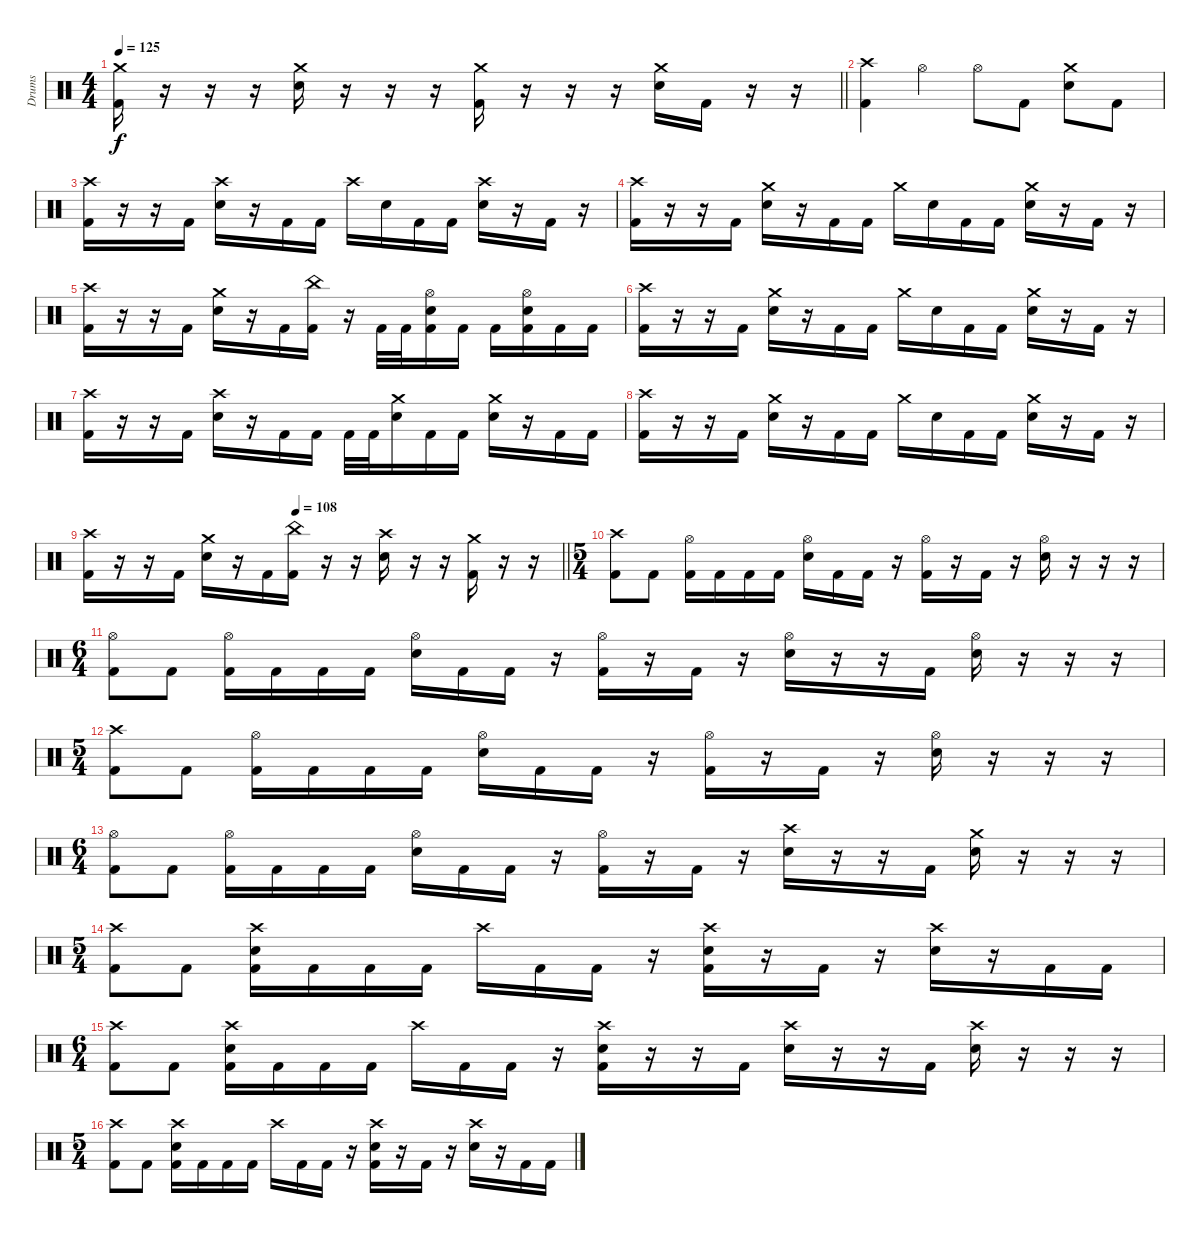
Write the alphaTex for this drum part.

\track ("Drums" "Drums") {instrument percussion}
\staff
\articulation defaults
\ts (4 4)
\tempo 125
\clef neutral
\barLineRight lightlight
\ks c
("Crash medium (hit)" "Kick (hit) 2").16{dy f} r.16 r.16 r.16 ("Crash medium (hit)" "Electric Snare (hit)").16 r.16 r.16 r.16 ("Crash medium (hit)" "Kick (hit) 2").16 r.16 r.16 r.16 ("Crash medium (hit)" "Electric Snare (hit)").16 "Kick (hit) 2".16 r.16 r.16 |
("Crash high (hit)" "Kick (hit) 2").4 "Hi-Hat (open)".4 "Hi-Hat (open)".8 "Kick (hit) 2".8 ("Crash medium (hit)" "Electric Snare (hit)").8 "Kick (hit) 2".8 |
("Crash high (hit)" "Kick (hit) 2").16 r.16 r.16 "Kick (hit) 2".16 ("Crash high (hit)" "Electric Snare (hit)").16 r.16 "Kick (hit) 2".16 "Kick (hit) 2".16 "Crash high (hit)".16 "Electric Snare (hit)".16 "Kick (hit) 2".16 "Kick (hit) 2".16 ("Crash high (hit)" "Electric Snare (hit)").16 r.16 "Kick (hit) 2".16 r.16 |
("Crash high (hit)" "Kick (hit) 2").16 r.16 r.16 "Kick (hit) 2".16 ("Crash medium (hit)" "Electric Snare (hit)").16 r.16 "Kick (hit) 2".16 "Kick (hit) 2".16 "Crash medium (hit)".16 "Electric Snare (hit)".16 "Kick (hit) 2".16 "Kick (hit) 2".16 ("Crash medium (hit)" "Electric Snare (hit)").16 r.16 "Kick (hit) 2".16 r.16 |
("Crash high (hit)" "Kick (hit) 2").16 r.16 r.16 "Kick (hit) 2".16 ("Crash medium (hit)" "Electric Snare (hit)").16 r.16 "Kick (hit) 2".16 ("China (hit)" "Kick (hit) 2").16 r.16 "Kick (hit) 2".32 "Kick (hit) 2".32 ("Hi-Hat (open)" "Electric Snare (hit)" "Kick (hit) 2").16 "Kick (hit) 2".16 "Kick (hit) 2".16 ("Hi-Hat (open)" "Electric Snare (hit)" "Kick (hit) 2").16 "Kick (hit) 2".16 "Kick (hit) 2".16 |
("Crash high (hit)" "Kick (hit) 2").16 r.16 r.16 "Kick (hit) 2".16 ("Crash medium (hit)" "Electric Snare (hit)").16 r.16 "Kick (hit) 2".16 "Kick (hit) 2".16 "Crash medium (hit)".16 "Electric Snare (hit)".16 "Kick (hit) 2".16 "Kick (hit) 2".16 ("Crash medium (hit)" "Electric Snare (hit)").16 r.16 "Kick (hit) 2".16 r.16 |
("Crash high (hit)" "Kick (hit) 2").16 r.16 r.16 "Kick (hit) 2".16 ("Crash high (hit)" "Electric Snare (hit)").16 r.16 "Kick (hit) 2".16 "Kick (hit) 2".16 "Kick (hit) 2".32 "Kick (hit) 2".32 ("Crash medium (hit)" "Electric Snare (hit)").16 "Kick (hit) 2".16 "Kick (hit) 2".16 ("Crash medium (hit)" "Electric Snare (hit)").16 r.16 "Kick (hit) 2".16 "Kick (hit) 2".16 |
("Crash high (hit)" "Kick (hit) 2").16 r.16 r.16 "Kick (hit) 2".16 ("Crash medium (hit)" "Electric Snare (hit)").16 r.16 "Kick (hit) 2".16 "Kick (hit) 2".16 "Crash medium (hit)".16 "Electric Snare (hit)".16 "Kick (hit) 2".16 "Kick (hit) 2".16 ("Crash medium (hit)" "Electric Snare (hit)").16 r.16 "Kick (hit) 2".16 r.16 |
\tempo (108 0.4375)
\barLineRight lightlight
("Crash high (hit)" "Kick (hit) 2").16 r.16 r.16 "Kick (hit) 2".16 ("Crash medium (hit)" "Electric Snare (hit)").16 r.16 "Kick (hit) 2".16 ("China (hit)" "Kick (hit) 2").16 r.16 r.16 ("Crash high (hit)" "Electric Snare (hit)").16 r.16 r.16 ("Crash medium (hit)" "Kick (hit) 2").16 r.16 r.16 |
\ts (5 4)
\section ("" "")
("Crash high (hit)" "Kick (hit) 2").8 "Kick (hit) 2".8 ("Hi-Hat (open)" "Kick (hit) 2").16 "Kick (hit) 2".16 "Kick (hit) 2".16 "Kick (hit) 2".16 ("Hi-Hat (open)" "Electric Snare (hit)").16 "Kick (hit) 2".16 "Kick (hit) 2".16 r.16 ("Hi-Hat (open)" "Kick (hit) 2").16 r.16 "Kick (hit) 2".16 r.16 ("Hi-Hat (open)" "Electric Snare (hit)").16 r.16 r.16 r.16 |
\ts (6 4)
("Hi-Hat (open)" "Kick (hit) 2").8 "Kick (hit) 2".8 ("Hi-Hat (open)" "Kick (hit) 2").16 "Kick (hit) 2".16 "Kick (hit) 2".16 "Kick (hit) 2".16 ("Hi-Hat (open)" "Electric Snare (hit)").16 "Kick (hit) 2".16 "Kick (hit) 2".16 r.16 ("Hi-Hat (open)" "Kick (hit) 2").16 r.16 "Kick (hit) 2".16 r.16 ("Hi-Hat (open)" "Electric Snare (hit)").16 r.16 r.16 "Kick (hit) 2".16 ("Hi-Hat (open)" "Electric Snare (hit)").16 r.16 r.16 r.16 |
\ts (5 4)
("Crash high (hit)" "Kick (hit) 2").8 "Kick (hit) 2".8 ("Hi-Hat (open)" "Kick (hit) 2").16 "Kick (hit) 2".16 "Kick (hit) 2".16 "Kick (hit) 2".16 ("Hi-Hat (open)" "Electric Snare (hit)").16 "Kick (hit) 2".16 "Kick (hit) 2".16 r.16 ("Hi-Hat (open)" "Kick (hit) 2").16 r.16 "Kick (hit) 2".16 r.16 ("Hi-Hat (open)" "Electric Snare (hit)").16 r.16 r.16 r.16 |
\ts (6 4)
("Hi-Hat (open)" "Kick (hit) 2").8 "Kick (hit) 2".8 ("Hi-Hat (open)" "Kick (hit) 2").16 "Kick (hit) 2".16 "Kick (hit) 2".16 "Kick (hit) 2".16 ("Hi-Hat (open)" "Electric Snare (hit)").16 "Kick (hit) 2".16 "Kick (hit) 2".16 r.16 ("Hi-Hat (open)" "Kick (hit) 2").16 r.16 "Kick (hit) 2".16 r.16 ("Crash high (hit)" "Electric Snare (hit)").16 r.16 r.16 "Kick (hit) 2".16 ("Crash medium (hit)" "Electric Snare (hit)").16 r.16 r.16 r.16 |
\ts (5 4)
("Crash high (hit)" "Kick (hit) 2").8 "Kick (hit) 2".8 ("Crash high (hit)" "Electric Snare (hit)" "Kick (hit) 2").16 "Kick (hit) 2".16 "Kick (hit) 2".16 "Kick (hit) 2".16 "Crash high (hit)".16 "Kick (hit) 2".16 "Kick (hit) 2".16 r.16 ("Crash high (hit)" "Electric Snare (hit)" "Kick (hit) 2").16 r.16 "Kick (hit) 2".16 r.16 ("Crash high (hit)" "Electric Snare (hit)").16 r.16 "Kick (hit) 2".16 "Kick (hit) 2".16 |
\ts (6 4)
("Crash high (hit)" "Kick (hit) 2").8 "Kick (hit) 2".8 ("Crash high (hit)" "Electric Snare (hit)" "Kick (hit) 2").16 "Kick (hit) 2".16 "Kick (hit) 2".16 "Kick (hit) 2".16 "Crash high (hit)".16 "Kick (hit) 2".16 "Kick (hit) 2".16 r.16 ("Crash high (hit)" "Electric Snare (hit)" "Kick (hit) 2").16 r.16 r.16 "Kick (hit) 2".16 ("Crash high (hit)" "Electric Snare (hit)").16 r.16 r.16 "Kick (hit) 2".16 ("Crash high (hit)" "Electric Snare (hit)").16 r.16 r.16 r.16 |
\ts (5 4)
("Crash high (hit)" "Kick (hit) 2").8 "Kick (hit) 2".8 ("Crash high (hit)" "Electric Snare (hit)" "Kick (hit) 2").16 "Kick (hit) 2".16 "Kick (hit) 2".16 "Kick (hit) 2".16 "Crash high (hit)".16 "Kick (hit) 2".16 "Kick (hit) 2".16 r.16 ("Crash high (hit)" "Electric Snare (hit)" "Kick (hit) 2").16 r.16 "Kick (hit) 2".16 r.16 ("Crash high (hit)" "Electric Snare (hit)").16 r.16 "Kick (hit) 2".16 "Kick (hit) 2".16
